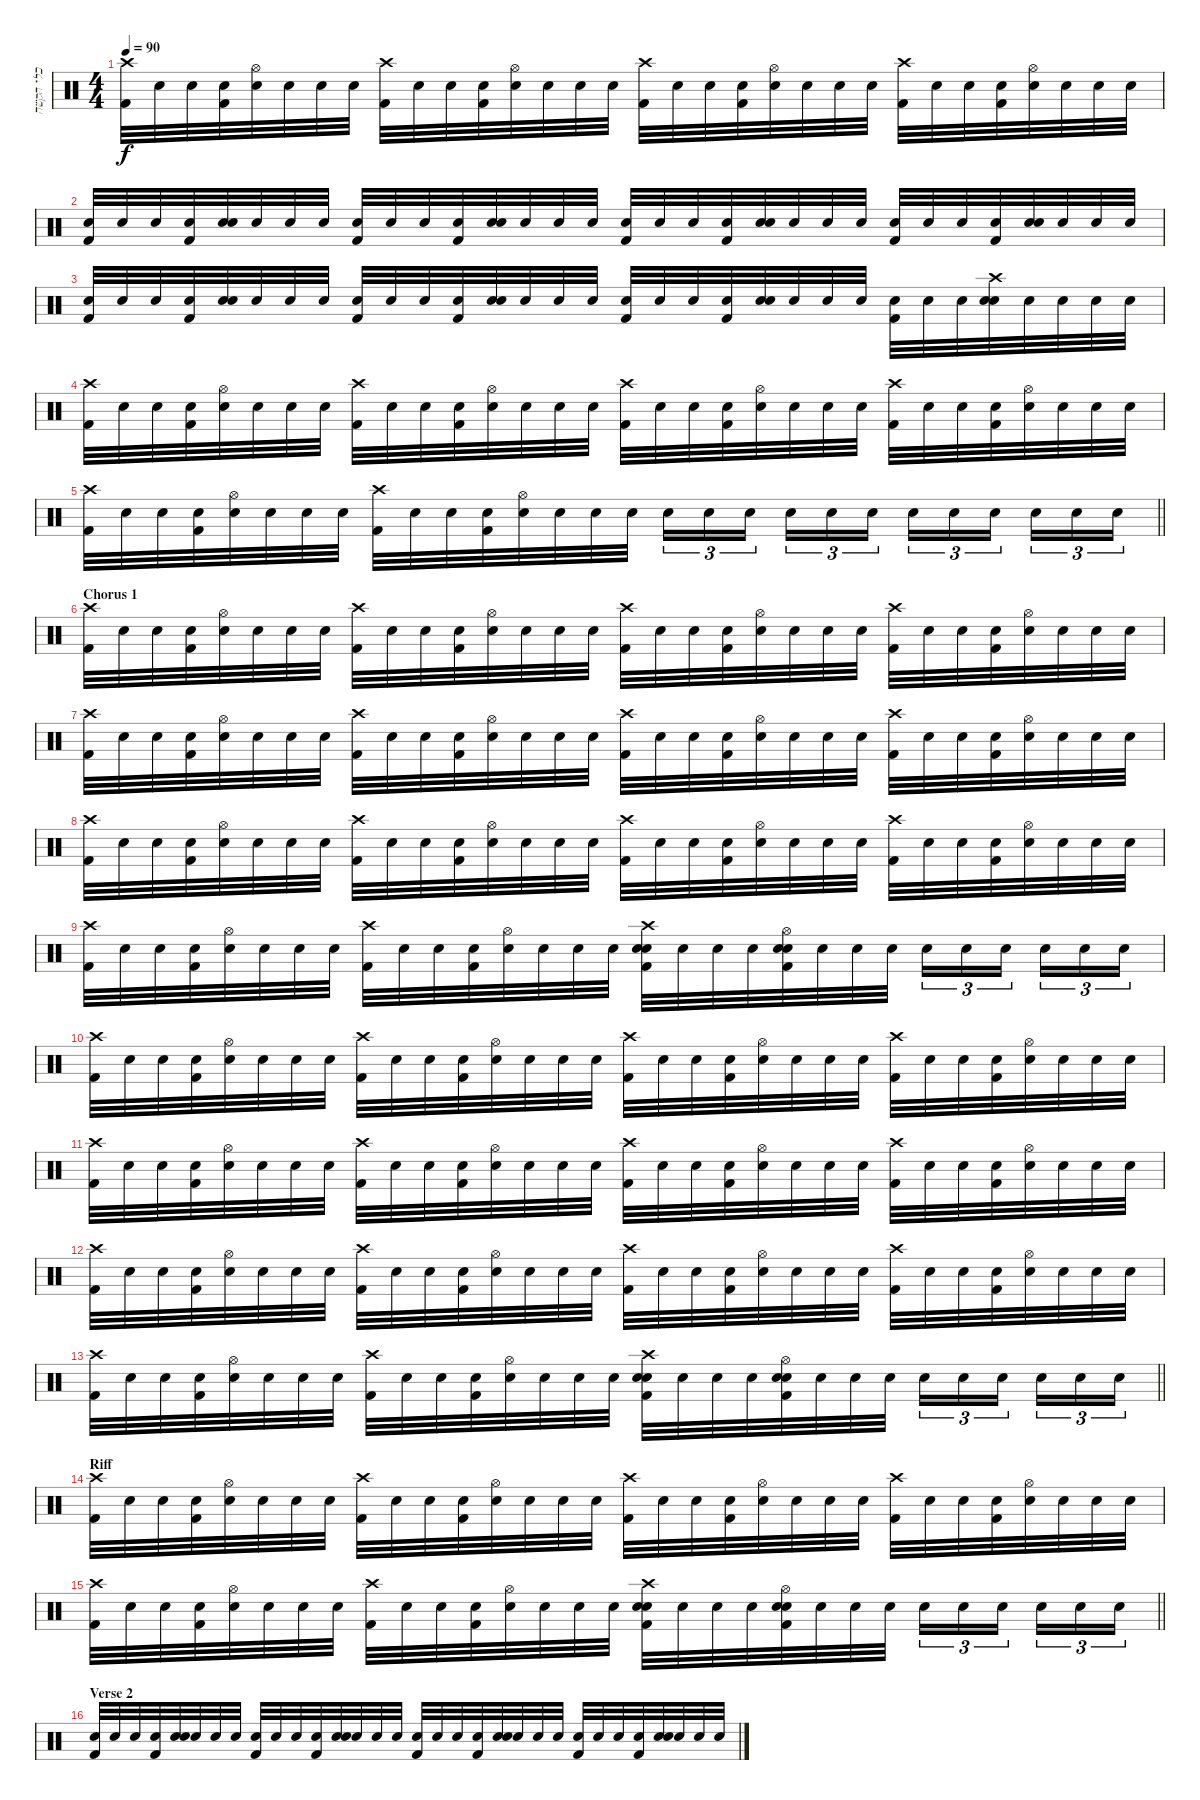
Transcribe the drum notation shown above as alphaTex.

\track ("כלי הקשה" "כלי הקשה") {instrument percussion bank 127}
\staff {score}
\articulation defaults
\ts (4 4)
\tempo 90
\clef neutral
\ks c
("Crash high (hit)" "Kick (hit) 2").32{dy f} "Snare (hit)".32 "Snare (hit)".32 ("Snare (hit)" "Kick (hit) 2").32 ("Hi-Hat (open)" "Snare (hit) 2").32 "Snare (hit)".32 "Snare (hit)".32 "Snare (hit)".32 ("Crash high (hit)" "Kick (hit) 2").32 "Snare (hit)".32 "Snare (hit)".32 ("Snare (hit)" "Kick (hit) 2").32 ("Hi-Hat (open)" "Snare (hit) 2").32 "Snare (hit)".32 "Snare (hit)".32 "Snare (hit)".32 ("Crash high (hit)" "Kick (hit) 2").32 "Snare (hit)".32 "Snare (hit)".32 ("Snare (hit)" "Kick (hit) 2").32 ("Hi-Hat (open)" "Snare (hit) 2").32 "Snare (hit)".32 "Snare (hit)".32 "Snare (hit)".32 ("Crash high (hit)" "Kick (hit) 2").32 "Snare (hit)".32 "Snare (hit)".32 ("Snare (hit)" "Kick (hit) 2").32 ("Hi-Hat (open)" "Snare (hit) 2").32 "Snare (hit)".32 "Snare (hit)".32 "Snare (hit)".32 |
("Snare (hit)" "Kick (hit) 2").32 "Snare (hit)".32 "Snare (hit)".32 ("Snare (hit)" "Kick (hit) 2").32 ("Snare (hit)" "Snare (hit) 2").32 "Snare (hit)".32 "Snare (hit)".32 "Snare (hit)".32 ("Snare (hit)" "Kick (hit) 2").32 "Snare (hit)".32 "Snare (hit)".32 ("Snare (hit)" "Kick (hit) 2").32 ("Snare (hit)" "Snare (hit) 2").32 "Snare (hit)".32 "Snare (hit)".32 "Snare (hit)".32 ("Snare (hit)" "Kick (hit) 2").32 "Snare (hit)".32 "Snare (hit)".32 ("Snare (hit)" "Kick (hit) 2").32 ("Snare (hit)" "Snare (hit) 2").32 "Snare (hit)".32 "Snare (hit)".32 "Snare (hit)".32 ("Snare (hit)" "Kick (hit) 2").32 "Snare (hit)".32 "Snare (hit)".32 ("Snare (hit)" "Kick (hit) 2").32 ("Snare (hit)" "Snare (hit) 2").32 "Snare (hit)".32 "Snare (hit)".32 "Snare (hit)".32 |
("Snare (hit)" "Kick (hit) 2").32 "Snare (hit)".32 "Snare (hit)".32 ("Snare (hit)" "Kick (hit) 2").32 ("Snare (hit)" "Snare (hit) 2").32 "Snare (hit)".32 "Snare (hit)".32 "Snare (hit)".32 ("Snare (hit)" "Kick (hit) 2").32 "Snare (hit)".32 "Snare (hit)".32 ("Snare (hit)" "Kick (hit) 2").32 ("Snare (hit)" "Snare (hit) 2").32 "Snare (hit)".32 "Snare (hit)".32 "Snare (hit)".32 ("Snare (hit)" "Kick (hit) 2").32 "Snare (hit)".32 "Snare (hit)".32 ("Snare (hit)" "Kick (hit) 2").32 ("Snare (hit)" "Snare (hit) 2").32 "Snare (hit)".32 "Snare (hit)".32 "Snare (hit)".32 ("Snare (hit)" "Kick (hit) 2").32 "Snare (hit)".32 "Snare (hit)".32 ("Crash high (hit)" "Snare (hit) 2" "Snare (hit) 2").32 "Snare (hit)".32 "Snare (hit)".32 "Snare (hit)".32 "Snare (hit)".32 |
("Crash high (hit)" "Kick (hit) 2").32 "Snare (hit)".32 "Snare (hit)".32 ("Snare (hit)" "Kick (hit) 2").32 ("Hi-Hat (open)" "Snare (hit) 2").32 "Snare (hit)".32 "Snare (hit)".32 "Snare (hit)".32 ("Crash high (hit)" "Kick (hit) 2").32 "Snare (hit)".32 "Snare (hit)".32 ("Snare (hit)" "Kick (hit) 2").32 ("Hi-Hat (open)" "Snare (hit) 2").32 "Snare (hit)".32 "Snare (hit)".32 "Snare (hit)".32 ("Crash high (hit)" "Kick (hit) 2").32 "Snare (hit)".32 "Snare (hit)".32 ("Snare (hit)" "Kick (hit) 2").32 ("Hi-Hat (open)" "Snare (hit) 2").32 "Snare (hit)".32 "Snare (hit)".32 "Snare (hit)".32 ("Crash high (hit)" "Kick (hit) 2").32 "Snare (hit)".32 "Snare (hit)".32 ("Snare (hit)" "Kick (hit) 2").32 ("Hi-Hat (open)" "Snare (hit) 2").32 "Snare (hit)".32 "Snare (hit)".32 "Snare (hit)".32 |
\barLineRight lightlight
("Crash high (hit)" "Kick (hit) 2").32 "Snare (hit)".32 "Snare (hit)".32 ("Snare (hit)" "Kick (hit) 2").32 ("Hi-Hat (open)" "Snare (hit) 2").32 "Snare (hit)".32 "Snare (hit)".32 "Snare (hit)".32 ("Crash high (hit)" "Kick (hit) 2").32 "Snare (hit)".32 "Snare (hit)".32 ("Snare (hit)" "Kick (hit) 2").32 ("Hi-Hat (open)" "Snare (hit) 2").32 "Snare (hit)".32 "Snare (hit)".32 "Snare (hit)".32 "Snare (hit) 2".16{tu (3 2)} "Snare (hit) 2".16{tu (3 2)} "Snare (hit) 2".16{tu (3 2) beam splitsecondary} "Snare (hit) 2".16{tu (3 2)} "Snare (hit) 2".16{tu (3 2)} "Snare (hit) 2".16{tu (3 2)} "Snare (hit) 2".16{tu (3 2)} "Snare (hit) 2".16{tu (3 2)} "Snare (hit) 2".16{tu (3 2) beam splitsecondary} "Snare (hit) 2".16{tu (3 2)} "Snare (hit) 2".16{tu (3 2)} "Snare (hit) 2".16{tu (3 2)} |
\section ("" "Chorus 1")
("Crash high (hit)" "Kick (hit) 2").32 "Snare (hit)".32 "Snare (hit)".32 ("Snare (hit)" "Kick (hit) 2").32 ("Hi-Hat (open)" "Snare (hit) 2").32 "Snare (hit)".32 "Snare (hit)".32 "Snare (hit)".32 ("Crash high (hit)" "Kick (hit) 2").32 "Snare (hit)".32 "Snare (hit)".32 ("Snare (hit)" "Kick (hit) 2").32 ("Hi-Hat (open)" "Snare (hit) 2").32 "Snare (hit)".32 "Snare (hit)".32 "Snare (hit)".32 ("Crash high (hit)" "Kick (hit) 2").32 "Snare (hit)".32 "Snare (hit)".32 ("Snare (hit)" "Kick (hit) 2").32 ("Hi-Hat (open)" "Snare (hit) 2").32 "Snare (hit)".32 "Snare (hit)".32 "Snare (hit)".32 ("Crash high (hit)" "Kick (hit) 2").32 "Snare (hit)".32 "Snare (hit)".32 ("Snare (hit)" "Kick (hit) 2").32 ("Hi-Hat (open)" "Snare (hit) 2").32 "Snare (hit)".32 "Snare (hit)".32 "Snare (hit)".32 |
("Crash high (hit)" "Kick (hit) 2").32 "Snare (hit)".32 "Snare (hit)".32 ("Snare (hit)" "Kick (hit) 2").32 ("Hi-Hat (open)" "Snare (hit) 2").32 "Snare (hit)".32 "Snare (hit)".32 "Snare (hit)".32 ("Crash high (hit)" "Kick (hit) 2").32 "Snare (hit)".32 "Snare (hit)".32 ("Snare (hit)" "Kick (hit) 2").32 ("Hi-Hat (open)" "Snare (hit) 2").32 "Snare (hit)".32 "Snare (hit)".32 "Snare (hit)".32 ("Crash high (hit)" "Kick (hit) 2").32 "Snare (hit)".32 "Snare (hit)".32 ("Snare (hit)" "Kick (hit) 2").32 ("Hi-Hat (open)" "Snare (hit) 2").32 "Snare (hit)".32 "Snare (hit)".32 "Snare (hit)".32 ("Crash high (hit)" "Kick (hit) 2").32 "Snare (hit)".32 "Snare (hit)".32 ("Snare (hit)" "Kick (hit) 2").32 ("Hi-Hat (open)" "Snare (hit) 2").32 "Snare (hit)".32 "Snare (hit)".32 "Snare (hit)".32 |
("Crash high (hit)" "Kick (hit) 2").32 "Snare (hit)".32 "Snare (hit)".32 ("Snare (hit)" "Kick (hit) 2").32 ("Hi-Hat (open)" "Snare (hit) 2").32 "Snare (hit)".32 "Snare (hit)".32 "Snare (hit)".32 ("Crash high (hit)" "Kick (hit) 2").32 "Snare (hit)".32 "Snare (hit)".32 ("Snare (hit)" "Kick (hit) 2").32 ("Hi-Hat (open)" "Snare (hit) 2").32 "Snare (hit)".32 "Snare (hit)".32 "Snare (hit)".32 ("Crash high (hit)" "Kick (hit) 2").32 "Snare (hit)".32 "Snare (hit)".32 ("Snare (hit)" "Kick (hit) 2").32 ("Hi-Hat (open)" "Snare (hit) 2").32 "Snare (hit)".32 "Snare (hit)".32 "Snare (hit)".32 ("Crash high (hit)" "Kick (hit) 2").32 "Snare (hit)".32 "Snare (hit)".32 ("Snare (hit)" "Kick (hit) 2").32 ("Hi-Hat (open)" "Snare (hit) 2").32 "Snare (hit)".32 "Snare (hit)".32 "Snare (hit)".32 |
("Crash high (hit)" "Kick (hit) 2").32 "Snare (hit)".32 "Snare (hit)".32 ("Snare (hit)" "Kick (hit) 2").32 ("Hi-Hat (open)" "Snare (hit) 2").32 "Snare (hit)".32 "Snare (hit)".32 "Snare (hit)".32 ("Crash high (hit)" "Kick (hit) 2").32 "Snare (hit)".32 "Snare (hit)".32 ("Snare (hit)" "Kick (hit) 2").32 ("Hi-Hat (open)" "Snare (hit) 2").32 "Snare (hit)".32 "Snare (hit)".32 "Snare (hit)".32 ("Crash high (hit)" "Snare (hit) 2" "Snare (hit) 2" "Kick (hit) 2").32 "Snare (hit)".32 "Snare (hit)".32 "Snare (hit)".32 ("Hi-Hat (open)" "Snare (hit) 2" "Snare (hit) 2" "Kick (hit) 2").32 "Snare (hit)".32 "Snare (hit)".32 "Snare (hit)".32 "Snare (hit) 2".16{tu (3 2)} "Snare (hit) 2".16{tu (3 2)} "Snare (hit) 2".16{tu (3 2) beam splitsecondary} "Snare (hit) 2".16{tu (3 2)} "Snare (hit) 2".16{tu (3 2)} "Snare (hit) 2".16{tu (3 2)} |
("Crash high (hit)" "Kick (hit) 2").32 "Snare (hit)".32 "Snare (hit)".32 ("Snare (hit)" "Kick (hit) 2").32 ("Hi-Hat (open)" "Snare (hit) 2").32 "Snare (hit)".32 "Snare (hit)".32 "Snare (hit)".32 ("Crash high (hit)" "Kick (hit) 2").32 "Snare (hit)".32 "Snare (hit)".32 ("Snare (hit)" "Kick (hit) 2").32 ("Hi-Hat (open)" "Snare (hit) 2").32 "Snare (hit)".32 "Snare (hit)".32 "Snare (hit)".32 ("Crash high (hit)" "Kick (hit) 2").32 "Snare (hit)".32 "Snare (hit)".32 ("Snare (hit)" "Kick (hit) 2").32 ("Hi-Hat (open)" "Snare (hit) 2").32 "Snare (hit)".32 "Snare (hit)".32 "Snare (hit)".32 ("Crash high (hit)" "Kick (hit) 2").32 "Snare (hit)".32 "Snare (hit)".32 ("Snare (hit)" "Kick (hit) 2").32 ("Hi-Hat (open)" "Snare (hit) 2").32 "Snare (hit)".32 "Snare (hit)".32 "Snare (hit)".32 |
("Crash high (hit)" "Kick (hit) 2").32 "Snare (hit)".32 "Snare (hit)".32 ("Snare (hit)" "Kick (hit) 2").32 ("Hi-Hat (open)" "Snare (hit) 2").32 "Snare (hit)".32 "Snare (hit)".32 "Snare (hit)".32 ("Crash high (hit)" "Kick (hit) 2").32 "Snare (hit)".32 "Snare (hit)".32 ("Snare (hit)" "Kick (hit) 2").32 ("Hi-Hat (open)" "Snare (hit) 2").32 "Snare (hit)".32 "Snare (hit)".32 "Snare (hit)".32 ("Crash high (hit)" "Kick (hit) 2").32 "Snare (hit)".32 "Snare (hit)".32 ("Snare (hit)" "Kick (hit) 2").32 ("Hi-Hat (open)" "Snare (hit) 2").32 "Snare (hit)".32 "Snare (hit)".32 "Snare (hit)".32 ("Crash high (hit)" "Kick (hit) 2").32 "Snare (hit)".32 "Snare (hit)".32 ("Snare (hit)" "Kick (hit) 2").32 ("Hi-Hat (open)" "Snare (hit) 2").32 "Snare (hit)".32 "Snare (hit)".32 "Snare (hit)".32 |
("Crash high (hit)" "Kick (hit) 2").32 "Snare (hit)".32 "Snare (hit)".32 ("Snare (hit)" "Kick (hit) 2").32 ("Hi-Hat (open)" "Snare (hit) 2").32 "Snare (hit)".32 "Snare (hit)".32 "Snare (hit)".32 ("Crash high (hit)" "Kick (hit) 2").32 "Snare (hit)".32 "Snare (hit)".32 ("Snare (hit)" "Kick (hit) 2").32 ("Hi-Hat (open)" "Snare (hit) 2").32 "Snare (hit)".32 "Snare (hit)".32 "Snare (hit)".32 ("Crash high (hit)" "Kick (hit) 2").32 "Snare (hit)".32 "Snare (hit)".32 ("Snare (hit)" "Kick (hit) 2").32 ("Hi-Hat (open)" "Snare (hit) 2").32 "Snare (hit)".32 "Snare (hit)".32 "Snare (hit)".32 ("Crash high (hit)" "Kick (hit) 2").32 "Snare (hit)".32 "Snare (hit)".32 ("Snare (hit)" "Kick (hit) 2").32 ("Hi-Hat (open)" "Snare (hit) 2").32 "Snare (hit)".32 "Snare (hit)".32 "Snare (hit)".32 |
\barLineRight lightlight
("Crash high (hit)" "Kick (hit) 2").32 "Snare (hit)".32 "Snare (hit)".32 ("Snare (hit)" "Kick (hit) 2").32 ("Hi-Hat (open)" "Snare (hit) 2").32 "Snare (hit)".32 "Snare (hit)".32 "Snare (hit)".32 ("Crash high (hit)" "Kick (hit) 2").32 "Snare (hit)".32 "Snare (hit)".32 ("Snare (hit)" "Kick (hit) 2").32 ("Hi-Hat (open)" "Snare (hit) 2").32 "Snare (hit)".32 "Snare (hit)".32 "Snare (hit)".32 ("Crash high (hit)" "Snare (hit) 2" "Snare (hit) 2" "Kick (hit) 2").32 "Snare (hit)".32 "Snare (hit)".32 "Snare (hit)".32 ("Hi-Hat (open)" "Snare (hit) 2" "Snare (hit) 2" "Kick (hit) 2").32 "Snare (hit)".32 "Snare (hit)".32 "Snare (hit)".32 "Snare (hit) 2".16{tu (3 2)} "Snare (hit) 2".16{tu (3 2)} "Snare (hit) 2".16{tu (3 2) beam splitsecondary} "Snare (hit) 2".16{tu (3 2)} "Snare (hit) 2".16{tu (3 2)} "Snare (hit) 2".16{tu (3 2)} |
\section ("" "Riff")
("Crash high (hit)" "Kick (hit) 2").32 "Snare (hit)".32 "Snare (hit)".32 ("Snare (hit)" "Kick (hit) 2").32 ("Hi-Hat (open)" "Snare (hit) 2").32 "Snare (hit)".32 "Snare (hit)".32 "Snare (hit)".32 ("Crash high (hit)" "Kick (hit) 2").32 "Snare (hit)".32 "Snare (hit)".32 ("Snare (hit)" "Kick (hit) 2").32 ("Hi-Hat (open)" "Snare (hit) 2").32 "Snare (hit)".32 "Snare (hit)".32 "Snare (hit)".32 ("Crash high (hit)" "Kick (hit) 2").32 "Snare (hit)".32 "Snare (hit)".32 ("Snare (hit)" "Kick (hit) 2").32 ("Hi-Hat (open)" "Snare (hit) 2").32 "Snare (hit)".32 "Snare (hit)".32 "Snare (hit)".32 ("Crash high (hit)" "Kick (hit) 2").32 "Snare (hit)".32 "Snare (hit)".32 ("Snare (hit)" "Kick (hit) 2").32 ("Hi-Hat (open)" "Snare (hit) 2").32 "Snare (hit)".32 "Snare (hit)".32 "Snare (hit)".32 |
\barLineRight lightlight
("Crash high (hit)" "Kick (hit) 2").32 "Snare (hit)".32 "Snare (hit)".32 ("Snare (hit)" "Kick (hit) 2").32 ("Hi-Hat (open)" "Snare (hit) 2").32 "Snare (hit)".32 "Snare (hit)".32 "Snare (hit)".32 ("Crash high (hit)" "Kick (hit) 2").32 "Snare (hit)".32 "Snare (hit)".32 ("Snare (hit)" "Kick (hit) 2").32 ("Hi-Hat (open)" "Snare (hit) 2").32 "Snare (hit)".32 "Snare (hit)".32 "Snare (hit)".32 ("Crash high (hit)" "Snare (hit) 2" "Snare (hit) 2" "Kick (hit) 2").32 "Snare (hit)".32 "Snare (hit)".32 "Snare (hit)".32 ("Hi-Hat (open)" "Snare (hit) 2" "Snare (hit) 2" "Kick (hit) 2").32 "Snare (hit)".32 "Snare (hit)".32 "Snare (hit)".32 "Snare (hit) 2".16{tu (3 2)} "Snare (hit) 2".16{tu (3 2)} "Snare (hit) 2".16{tu (3 2) beam splitsecondary} "Snare (hit) 2".16{tu (3 2)} "Snare (hit) 2".16{tu (3 2)} "Snare (hit) 2".16{tu (3 2)} |
\section ("" "Verse 2")
("Snare (hit)" "Kick (hit) 2").32 "Snare (hit)".32 "Snare (hit)".32 ("Snare (hit)" "Kick (hit) 2").32 ("Snare (hit)" "Snare (hit) 2").32 "Snare (hit)".32 "Snare (hit)".32 "Snare (hit)".32 ("Snare (hit)" "Kick (hit) 2").32 "Snare (hit)".32 "Snare (hit)".32 ("Snare (hit)" "Kick (hit) 2").32 ("Snare (hit)" "Snare (hit) 2").32 "Snare (hit)".32 "Snare (hit)".32 "Snare (hit)".32 ("Snare (hit)" "Kick (hit) 2").32 "Snare (hit)".32 "Snare (hit)".32 ("Snare (hit)" "Kick (hit) 2").32 ("Snare (hit)" "Snare (hit) 2").32 "Snare (hit)".32 "Snare (hit)".32 "Snare (hit)".32 ("Snare (hit)" "Kick (hit) 2").32 "Snare (hit)".32 "Snare (hit)".32 ("Snare (hit)" "Kick (hit) 2").32 ("Snare (hit)" "Snare (hit) 2").32 "Snare (hit)".32 "Snare (hit)".32 "Snare (hit)".32
